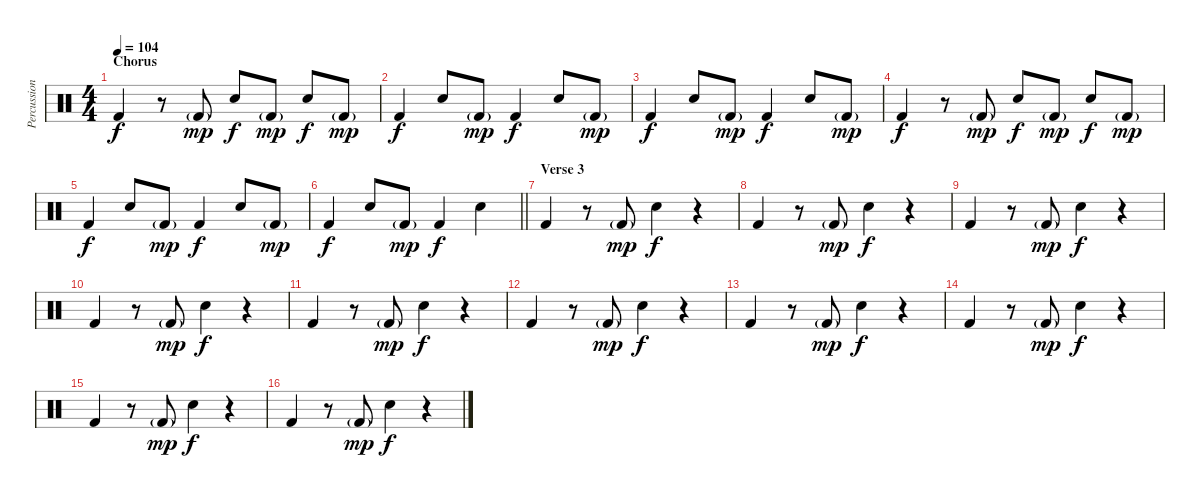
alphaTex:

\track ("Percussion" "Percussion") {instrument percussion}
\staff {score}
\articulation defaults
\ts (4 4)
\section ("" "Chorus")
\tempo 104
\clef neutral
\ks c "Kick (hit) 2".4{dy f}
r.8 "Kick (hit) 2"{g}.8{dy mp} "Snare (hit) 2".8{dy f} "Kick (hit) 2"{g}.8{dy mp} "Snare (hit) 2".8{dy f} "Kick (hit) 2"{g}.8{dy mp} |
"Kick (hit) 2".4{dy f} "Snare (hit) 2".8 "Kick (hit) 2"{g}.8{dy mp} "Kick (hit) 2".4{dy f} "Snare (hit) 2".8 "Kick (hit) 2"{g}.8{dy mp} |
"Kick (hit) 2".4{dy f} "Snare (hit) 2".8 "Kick (hit) 2"{g}.8{dy mp} "Kick (hit) 2".4{dy f} "Snare (hit) 2".8 "Kick (hit) 2"{g}.8{dy mp} |
"Kick (hit) 2".4{dy f} r.8 "Kick (hit) 2"{g}.8{dy mp} "Snare (hit) 2".8{dy f} "Kick (hit) 2"{g}.8{dy mp} "Snare (hit) 2".8{dy f} "Kick (hit) 2"{g}.8{dy mp} |
"Kick (hit) 2".4{dy f} "Snare (hit) 2".8 "Kick (hit) 2"{g}.8{dy mp} "Kick (hit) 2".4{dy f} "Snare (hit) 2".8 "Kick (hit) 2"{g}.8{dy mp} |
\barLineRight lightlight "Kick (hit) 2".4{dy f} "Snare (hit) 2".8 "Kick (hit) 2"{g}.8{dy mp} "Kick (hit) 2".4{dy f} "Snare (hit) 2".4
|
\section ("" "Verse 3")
"Kick (hit) 2".4 r.8 "Kick (hit) 2"{g}.8{dy mp} "Snare (hit) 2".4{dy f} r.4 |
"Kick (hit) 2".4 r.8 "Kick (hit) 2"{g}.8{dy mp} "Snare (hit) 2".4{dy f} r.4 |
"Kick (hit) 2".4 r.8 "Kick (hit) 2"{g}.8{dy mp} "Snare (hit) 2".4{dy f} r.4 |
"Kick (hit) 2".4 r.8 "Kick (hit) 2"{g}.8{dy mp} "Snare (hit) 2".4{dy f} r.4 |
"Kick (hit) 2".4 r.8 "Kick (hit) 2"{g}.8{dy mp} "Snare (hit) 2".4{dy f} r.4 |
"Kick (hit) 2".4 r.8 "Kick (hit) 2"{g}.8{dy mp} "Snare (hit) 2".4{dy f} r.4 |
"Kick (hit) 2".4 r.8 "Kick (hit) 2"{g}.8{dy mp} "Snare (hit) 2".4{dy f} r.4 |
"Kick (hit) 2".4 r.8 "Kick (hit) 2"{g}.8{dy mp} "Snare (hit) 2".4{dy f} r.4 |
"Kick (hit) 2".4 r.8 "Kick (hit) 2"{g}.8{dy mp} "Snare (hit) 2".4{dy f} r.4 |
"Kick (hit) 2".4 r.8 "Kick (hit) 2"{g}.8{dy mp} "Snare (hit) 2".4{dy f} r.4
